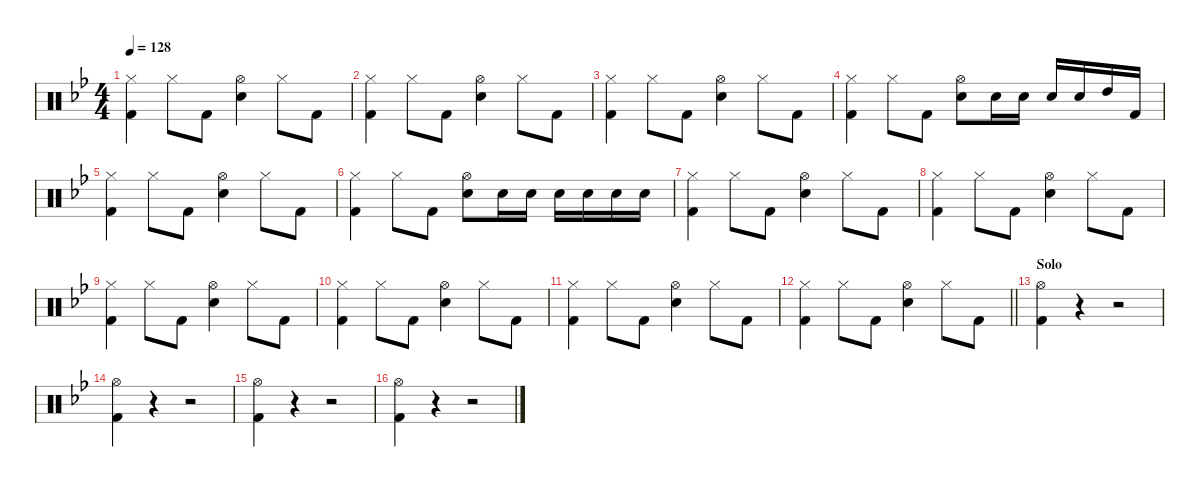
\defaultSystemsLayout 4
\hideDynamics
\bracketExtendMode groupsimilarinstruments
\singleTrackTrackNamePolicy hidden
\multiTrackTrackNamePolicy hidden
\firstSystemTrackNameMode fullname
\firstSystemTrackNameOrientation horizontal
\otherSystemsTrackNameOrientation horizontal
\extendBarLines
\track ("Drums" "drm.") {instrument percussion}
\staff {score}
\articulation defaults
\ts (4 4)
\tempo 128
\clef neutral
\ks bb
("Hi-Hat (closed)"{acc forcenatural} "Kick (hit) 2"{acc forcenatural}).4{dy f beam Down} "Hi-Hat (closed)"{acc forcenatural}.8{beam Down} "Kick (hit) 2"{acc forcenatural}.8{beam Down} ("Hi-Hat (open)"{acc forcenatural} "Snare (hit) 2"{acc forcenatural}).4{beam Down} "Hi-Hat (closed)"{acc forcenatural}.8{beam Down} "Kick (hit) 2"{acc forcenatural}.8{beam Down} |
("Hi-Hat (closed)"{acc forcenatural} "Kick (hit) 2"{acc forcenatural}).4{beam Down} "Hi-Hat (closed)"{acc forcenatural}.8{beam Down} "Kick (hit) 2"{acc forcenatural}.8{beam Down} ("Hi-Hat (open)"{acc forcenatural} "Snare (hit) 2"{acc forcenatural}).4{beam Down} "Hi-Hat (closed)"{acc forcenatural}.8{beam Down} "Kick (hit) 2"{acc forcenatural}.8{beam Down} |
("Hi-Hat (closed)"{acc forcenatural} "Kick (hit) 2"{acc forcenatural}).4{beam Down} "Hi-Hat (closed)"{acc forcenatural}.8{beam Down} "Kick (hit) 2"{acc forcenatural}.8{beam Down} ("Hi-Hat (open)"{acc forcenatural} "Snare (hit) 2"{acc forcenatural}).4{beam Down} "Hi-Hat (closed)"{acc forcenatural}.8{beam Down} "Kick (hit) 2"{acc forcenatural}.8{beam Down} |
("Hi-Hat (closed)"{acc forcenatural} "Kick (hit) 2"{acc forcenatural}).4{beam Down} "Hi-Hat (closed)"{acc forcenatural}.8{beam Down} "Kick (hit) 2"{acc forcenatural}.8{beam Down} ("Hi-Hat (open)"{acc forcenatural} "Snare (hit) 2"{acc forcenatural}).8{beam Down} "Snare (hit) 2"{acc forcenatural}.16{beam Down} "Snare (hit) 2"{acc forcenatural}.16{beam Down} "Snare (hit) 2"{acc forcenatural}.16{beam Up} "Snare (hit) 2"{acc forcenatural}.16{beam Up} "High Tom (hit)"{acc forcenatural}.16{beam Up} "Kick (hit) 2"{acc forcenatural}.16{beam Up} |
("Hi-Hat (closed)"{acc forcenatural} "Kick (hit) 2"{acc forcenatural}).4{beam Down} "Hi-Hat (closed)"{acc forcenatural}.8{beam Down} "Kick (hit) 2"{acc forcenatural}.8{beam Down} ("Hi-Hat (open)"{acc forcenatural} "Snare (hit) 2"{acc forcenatural}).4{beam Down} "Hi-Hat (closed)"{acc forcenatural}.8{beam Down} "Kick (hit) 2"{acc forcenatural}.8{beam Down} |
("Hi-Hat (closed)"{acc forcenatural} "Kick (hit) 2"{acc forcenatural}).4{beam Down} "Hi-Hat (closed)"{acc forcenatural}.8{beam Down} "Kick (hit) 2"{acc forcenatural}.8{beam Down} ("Hi-Hat (open)"{acc forcenatural} "Snare (hit) 2"{acc forcenatural}).8{beam Down} "Snare (hit) 2"{acc forcenatural}.16{beam Down} "Snare (hit) 2"{acc forcenatural}.16{beam Down} "Snare (hit) 2"{acc forcenatural}.16{beam Down} "Snare (hit) 2"{acc forcenatural}.16{beam Down} "Snare (hit) 2"{acc forcenatural}.16{beam Down} "Snare (hit) 2"{acc forcenatural}.16{beam Down} |
("Hi-Hat (closed)"{acc forcenatural} "Kick (hit) 2"{acc forcenatural}).4{beam Down} "Hi-Hat (closed)"{acc forcenatural}.8{beam Down} "Kick (hit) 2"{acc forcenatural}.8{beam Down} ("Hi-Hat (open)"{acc forcenatural} "Snare (hit) 2"{acc forcenatural}).4{beam Down} "Hi-Hat (closed)"{acc forcenatural}.8{beam Down} "Kick (hit) 2"{acc forcenatural}.8{beam Down} |
("Hi-Hat (closed)"{acc forcenatural} "Kick (hit) 2"{acc forcenatural}).4{beam Down} "Hi-Hat (closed)"{acc forcenatural}.8{beam Down} "Kick (hit) 2"{acc forcenatural}.8{beam Down} ("Hi-Hat (open)"{acc forcenatural} "Snare (hit) 2"{acc forcenatural}).4{beam Down} "Hi-Hat (closed)"{acc forcenatural}.8{beam Down} "Kick (hit) 2"{acc forcenatural}.8{beam Down} |
("Hi-Hat (closed)"{acc forcenatural} "Kick (hit) 2"{acc forcenatural}).4{beam Down} "Hi-Hat (closed)"{acc forcenatural}.8{beam Down} "Kick (hit) 2"{acc forcenatural}.8{beam Down} ("Hi-Hat (open)"{acc forcenatural} "Snare (hit) 2"{acc forcenatural}).4{beam Down} "Hi-Hat (closed)"{acc forcenatural}.8{beam Down} "Kick (hit) 2"{acc forcenatural}.8{beam Down} |
("Hi-Hat (closed)"{acc forcenatural} "Kick (hit) 2"{acc forcenatural}).4{beam Down} "Hi-Hat (closed)"{acc forcenatural}.8{beam Down} "Kick (hit) 2"{acc forcenatural}.8{beam Down} ("Hi-Hat (open)"{acc forcenatural} "Snare (hit) 2"{acc forcenatural}).4{beam Down} "Hi-Hat (closed)"{acc forcenatural}.8{beam Down} "Kick (hit) 2"{acc forcenatural}.8{beam Down} |
("Hi-Hat (closed)"{acc forcenatural} "Kick (hit) 2"{acc forcenatural}).4{beam Down} "Hi-Hat (closed)"{acc forcenatural}.8{beam Down} "Kick (hit) 2"{acc forcenatural}.8{beam Down} ("Hi-Hat (open)"{acc forcenatural} "Snare (hit) 2"{acc forcenatural}).4{beam Down} "Hi-Hat (closed)"{acc forcenatural}.8{beam Down} "Kick (hit) 2"{acc forcenatural}.8{beam Down} |
\barLineRight lightlight
("Hi-Hat (closed)"{acc forcenatural} "Kick (hit) 2"{acc forcenatural}).4{beam Down} "Hi-Hat (closed)"{acc forcenatural}.8{beam Down} "Kick (hit) 2"{acc forcenatural}.8{beam Down} ("Hi-Hat (open)"{acc forcenatural} "Snare (hit) 2"{acc forcenatural}).4{beam Down} "Hi-Hat (closed)"{acc forcenatural}.8{beam Down} "Kick (hit) 2"{acc forcenatural}.8{beam Down} |
\section ("" "Solo")
("Hi-Hat (open)"{acc forcenatural} "Kick (hit) 2"{acc forcenatural}).4{beam Down} r.4{beam Down} r.2{beam Down} |
("Hi-Hat (open)"{acc forcenatural} "Kick (hit) 2"{acc forcenatural}).4{beam Down} r.4{beam Down} r.2{beam Down} |
("Hi-Hat (open)"{acc forcenatural} "Kick (hit) 2"{acc forcenatural}).4{beam Down} r.4{beam Down} r.2{beam Down} |
("Hi-Hat (open)"{acc forcenatural} "Kick (hit) 2"{acc forcenatural}).4{beam Down} r.4{beam Down} r.2{beam Down}
